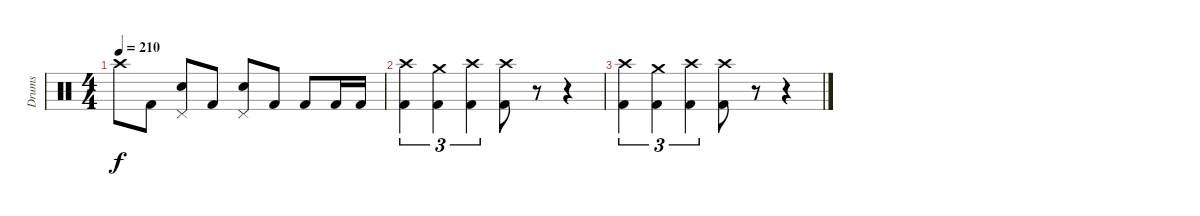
\track ("Drums" "Drums") {instrument percussion}
\staff {score}
\articulation defaults
\ts (4 4)
\tempo 210
\clef neutral
\ks c "Crash high (hit)"{t}.8{dy f} "Kick (hit) 2".8
("Pedal Hi-Hat (hit)" "Electric Snare (hit)").8 "Kick (hit) 2".8 ("Pedal Hi-Hat (hit)" "Electric Snare (hit)").8 "Kick (hit) 2".8 "Kick (hit) 2".8 "Kick (hit) 2".16 "Kick (hit) 2".16 |
("Crash high (hit)" "Kick (hit) 2").4{tu (3 2)} ("Crash medium (hit)" "Kick (hit) 2").4{tu (3 2)} ("Crash high (hit)" "Kick (hit) 2").4{tu (3 2)} ("Crash high (hit)" "Kick (hit) 2").8 r.8 r.4 |
("Crash high (hit)" "Kick (hit) 2").4{tu (3 2)} ("Crash medium (hit)" "Kick (hit) 2").4{tu (3 2)} ("Crash high (hit)" "Kick (hit) 2").4{tu (3 2)} ("Crash high (hit)" "Kick (hit) 2").8 r.8 r.4
